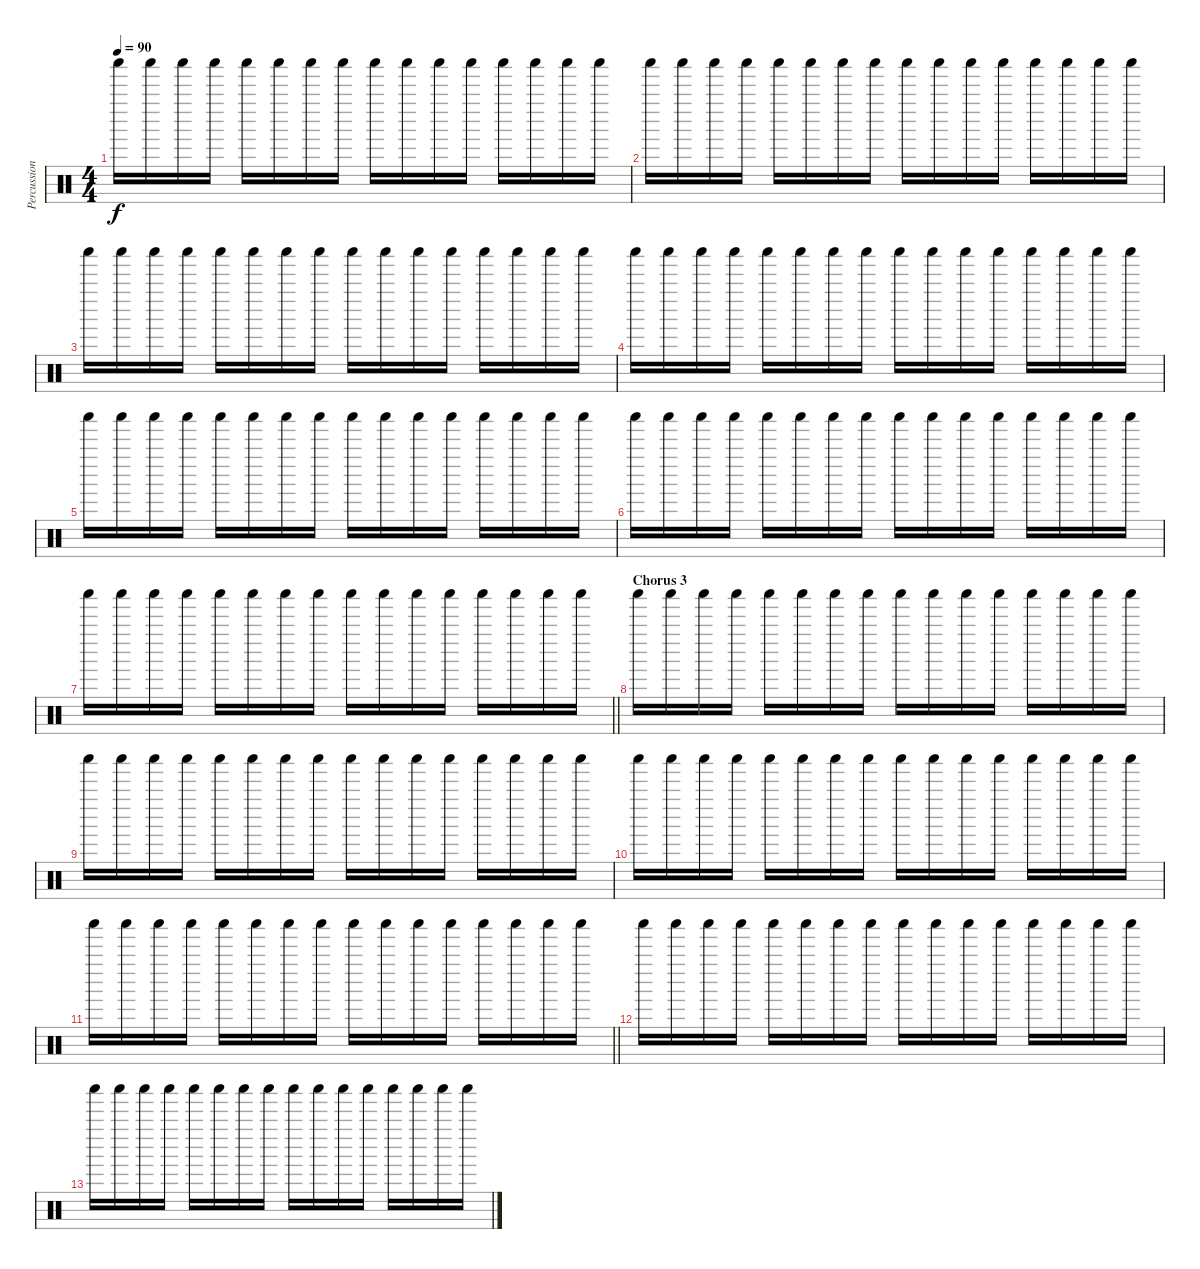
\track ("Percussion" "Percussion") {instrument percussion}
\staff {score}
\articulation defaults
\ts (4 4)
\tempo 90
\clef neutral
\ks c "Shaker (hit)".16{dy f} "Shaker (hit)".16 "Shaker (hit)".16 "Shaker (hit)".16 "Shaker (hit)".16 "Shaker (hit)".16 "Shaker (hit)".16 "Shaker (hit)".16 "Shaker (hit)".16 "Shaker (hit)".16 "Shaker (hit)".16 "Shaker (hit)".16 "Shaker (hit)".16 "Shaker (hit)".16 "Shaker (hit)".16 "Shaker (hit)".16
|
"Shaker (hit)".16 "Shaker (hit)".16 "Shaker (hit)".16 "Shaker (hit)".16 "Shaker (hit)".16 "Shaker (hit)".16 "Shaker (hit)".16 "Shaker (hit)".16 "Shaker (hit)".16 "Shaker (hit)".16 "Shaker (hit)".16 "Shaker (hit)".16 "Shaker (hit)".16 "Shaker (hit)".16 "Shaker (hit)".16 "Shaker (hit)".16 |
"Shaker (hit)".16 "Shaker (hit)".16 "Shaker (hit)".16 "Shaker (hit)".16 "Shaker (hit)".16 "Shaker (hit)".16 "Shaker (hit)".16 "Shaker (hit)".16 "Shaker (hit)".16 "Shaker (hit)".16 "Shaker (hit)".16 "Shaker (hit)".16 "Shaker (hit)".16 "Shaker (hit)".16 "Shaker (hit)".16 "Shaker (hit)".16 |
"Shaker (hit)".16 "Shaker (hit)".16 "Shaker (hit)".16 "Shaker (hit)".16 "Shaker (hit)".16 "Shaker (hit)".16 "Shaker (hit)".16 "Shaker (hit)".16 "Shaker (hit)".16 "Shaker (hit)".16 "Shaker (hit)".16 "Shaker (hit)".16 "Shaker (hit)".16 "Shaker (hit)".16 "Shaker (hit)".16 "Shaker (hit)".16 |
"Shaker (hit)".16 "Shaker (hit)".16 "Shaker (hit)".16 "Shaker (hit)".16 "Shaker (hit)".16 "Shaker (hit)".16 "Shaker (hit)".16 "Shaker (hit)".16 "Shaker (hit)".16 "Shaker (hit)".16 "Shaker (hit)".16 "Shaker (hit)".16 "Shaker (hit)".16 "Shaker (hit)".16 "Shaker (hit)".16 "Shaker (hit)".16 |
"Shaker (hit)".16 "Shaker (hit)".16 "Shaker (hit)".16 "Shaker (hit)".16 "Shaker (hit)".16 "Shaker (hit)".16 "Shaker (hit)".16 "Shaker (hit)".16 "Shaker (hit)".16 "Shaker (hit)".16 "Shaker (hit)".16 "Shaker (hit)".16 "Shaker (hit)".16 "Shaker (hit)".16 "Shaker (hit)".16 "Shaker (hit)".16 |
\barLineRight lightlight "Shaker (hit)".16 "Shaker (hit)".16 "Shaker (hit)".16 "Shaker (hit)".16 "Shaker (hit)".16 "Shaker (hit)".16 "Shaker (hit)".16 "Shaker (hit)".16 "Shaker (hit)".16 "Shaker (hit)".16 "Shaker (hit)".16 "Shaker (hit)".16 "Shaker (hit)".16 "Shaker (hit)".16 "Shaker (hit)".16 "Shaker (hit)".16
|
\section ("" "Chorus 3")
"Shaker (hit)".16 "Shaker (hit)".16 "Shaker (hit)".16 "Shaker (hit)".16 "Shaker (hit)".16 "Shaker (hit)".16 "Shaker (hit)".16 "Shaker (hit)".16 "Shaker (hit)".16 "Shaker (hit)".16 "Shaker (hit)".16 "Shaker (hit)".16 "Shaker (hit)".16 "Shaker (hit)".16 "Shaker (hit)".16 "Shaker (hit)".16 |
"Shaker (hit)".16 "Shaker (hit)".16 "Shaker (hit)".16 "Shaker (hit)".16 "Shaker (hit)".16 "Shaker (hit)".16 "Shaker (hit)".16 "Shaker (hit)".16 "Shaker (hit)".16 "Shaker (hit)".16 "Shaker (hit)".16 "Shaker (hit)".16 "Shaker (hit)".16 "Shaker (hit)".16 "Shaker (hit)".16 "Shaker (hit)".16 |
"Shaker (hit)".16 "Shaker (hit)".16 "Shaker (hit)".16 "Shaker (hit)".16 "Shaker (hit)".16 "Shaker (hit)".16 "Shaker (hit)".16 "Shaker (hit)".16 "Shaker (hit)".16 "Shaker (hit)".16 "Shaker (hit)".16 "Shaker (hit)".16 "Shaker (hit)".16 "Shaker (hit)".16 "Shaker (hit)".16 "Shaker (hit)".16 |
\barLineRight lightlight "Shaker (hit)".16 "Shaker (hit)".16 "Shaker (hit)".16 "Shaker (hit)".16 "Shaker (hit)".16 "Shaker (hit)".16 "Shaker (hit)".16 "Shaker (hit)".16 "Shaker (hit)".16 "Shaker (hit)".16 "Shaker (hit)".16 "Shaker (hit)".16 "Shaker (hit)".16 "Shaker (hit)".16 "Shaker (hit)".16 "Shaker (hit)".16
|
"Shaker (hit)".16 "Shaker (hit)".16 "Shaker (hit)".16 "Shaker (hit)".16 "Shaker (hit)".16 "Shaker (hit)".16 "Shaker (hit)".16 "Shaker (hit)".16 "Shaker (hit)".16 "Shaker (hit)".16 "Shaker (hit)".16 "Shaker (hit)".16 "Shaker (hit)".16 "Shaker (hit)".16 "Shaker (hit)".16 "Shaker (hit)".16 |
"Shaker (hit)".16 "Shaker (hit)".16 "Shaker (hit)".16 "Shaker (hit)".16 "Shaker (hit)".16 "Shaker (hit)".16 "Shaker (hit)".16 "Shaker (hit)".16 "Shaker (hit)".16 "Shaker (hit)".16 "Shaker (hit)".16 "Shaker (hit)".16 "Shaker (hit)".16 "Shaker (hit)".16 "Shaker (hit)".16 "Shaker (hit)".16
